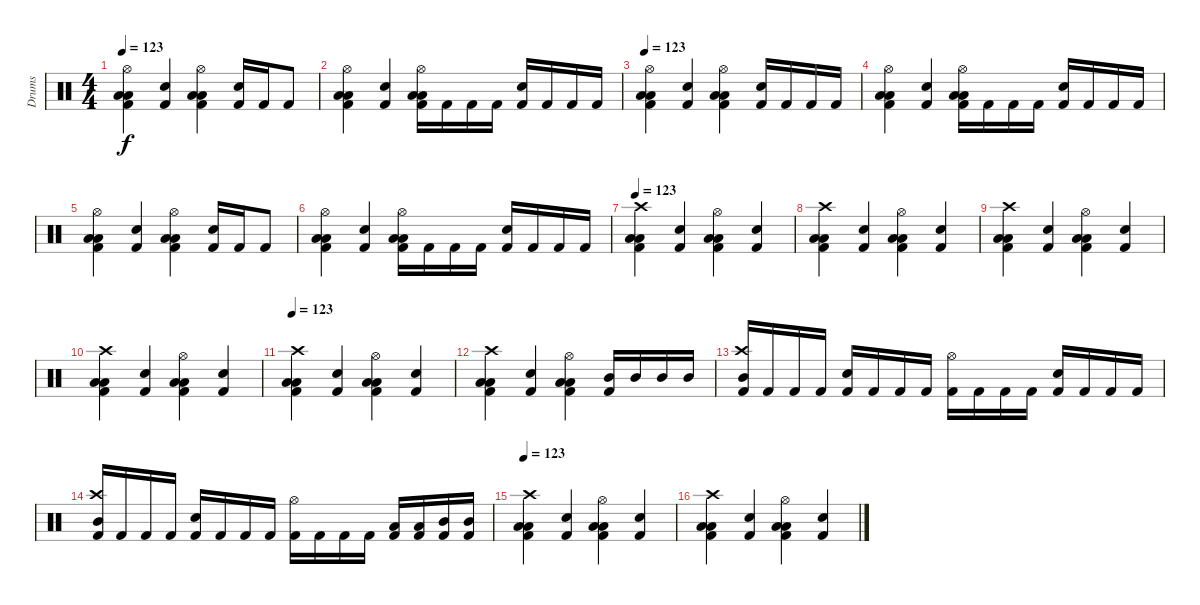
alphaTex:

\track ("Drums" "Drums") {instrument percussion}
\staff {score}
\articulation defaults
\ts (4 4)
\tempo 123
\clef neutral
\ks c
("Hi-Hat (open)" "Low Floor Tom (hit)" "Low Floor Tom (hit)" "Kick (hit) 2").4{dy f} ("Snare (hit) 2" "Kick (hit) 2").4 ("Hi-Hat (open)" "Low Floor Tom (hit)" "Low Floor Tom (hit)" "Kick (hit) 2").4 ("Snare (hit) 2" "Kick (hit) 2").16 "Kick (hit) 2".16 "Kick (hit) 2".8 |
("Hi-Hat (open)" "Low Floor Tom (hit)" "Low Floor Tom (hit)" "Kick (hit) 2").4 ("Snare (hit) 2" "Kick (hit) 2").4 ("Hi-Hat (open)" "Low Floor Tom (hit)" "Low Floor Tom (hit)" "Kick (hit) 2").16 "Kick (hit) 2".16 "Kick (hit) 2".16 "Kick (hit) 2".16 ("Snare (hit) 2" "Kick (hit) 2").16 "Kick (hit) 2".16 "Kick (hit) 2".16 "Kick (hit) 2".16 |
\tempo 123
("Hi-Hat (open)" "Low Floor Tom (hit)" "Low Floor Tom (hit)" "Kick (hit) 2").4 ("Snare (hit) 2" "Kick (hit) 2").4 ("Hi-Hat (open)" "Low Floor Tom (hit)" "Low Floor Tom (hit)" "Kick (hit) 2").4 ("Snare (hit) 2" "Kick (hit) 2").16 "Kick (hit) 2".16 "Kick (hit) 2".16 "Kick (hit) 2".16 |
("Hi-Hat (open)" "Low Floor Tom (hit)" "Low Floor Tom (hit)" "Kick (hit) 2").4 ("Snare (hit) 2" "Kick (hit) 2").4 ("Hi-Hat (open)" "Low Floor Tom (hit)" "Low Floor Tom (hit)" "Kick (hit) 2").16 "Kick (hit) 2".16 "Kick (hit) 2".16 "Kick (hit) 2".16 ("Snare (hit) 2" "Kick (hit) 2").16 "Kick (hit) 2".16 "Kick (hit) 2".16 "Kick (hit) 2".16 |
("Hi-Hat (open)" "Low Floor Tom (hit)" "Low Floor Tom (hit)" "Kick (hit) 2").4 ("Snare (hit) 2" "Kick (hit) 2").4 ("Hi-Hat (open)" "Low Floor Tom (hit)" "Low Floor Tom (hit)" "Kick (hit) 2").4 ("Snare (hit) 2" "Kick (hit) 2").16 "Kick (hit) 2".16 "Kick (hit) 2".8 |
("Hi-Hat (open)" "Low Floor Tom (hit)" "Low Floor Tom (hit)" "Kick (hit) 2").4 ("Snare (hit) 2" "Kick (hit) 2").4 ("Hi-Hat (open)" "Low Floor Tom (hit)" "Low Floor Tom (hit)" "Kick (hit) 2").16 "Kick (hit) 2".16 "Kick (hit) 2".16 "Kick (hit) 2".16 ("Snare (hit) 2" "Kick (hit) 2").16 "Kick (hit) 2".16 "Kick (hit) 2".16 "Kick (hit) 2".16 |
\tempo 123
("Crash high (hit)" "Low Floor Tom (hit)" "Low Floor Tom (hit)" "Kick (hit) 2").4 ("Snare (hit) 2" "Kick (hit) 2").4 ("Hi-Hat (open)" "Low Floor Tom (hit)" "Low Floor Tom (hit)" "Kick (hit) 2").4 ("Snare (hit) 2" "Kick (hit) 2").4 |
("Crash high (hit)" "Low Floor Tom (hit)" "Low Floor Tom (hit)" "Kick (hit) 2").4 ("Snare (hit) 2" "Kick (hit) 2").4 ("Hi-Hat (open)" "Low Floor Tom (hit)" "Low Floor Tom (hit)" "Kick (hit) 2").4 ("Snare (hit) 2" "Kick (hit) 2").4 |
("Crash high (hit)" "Low Floor Tom (hit)" "Low Floor Tom (hit)" "Kick (hit) 2").4 ("Snare (hit) 2" "Kick (hit) 2").4 ("Hi-Hat (open)" "Low Floor Tom (hit)" "Low Floor Tom (hit)" "Kick (hit) 2").4 ("Snare (hit) 2" "Kick (hit) 2").4 |
("Crash high (hit)" "Low Floor Tom (hit)" "Low Floor Tom (hit)" "Kick (hit) 2").4 ("Snare (hit) 2" "Kick (hit) 2").4 ("Hi-Hat (open)" "Low Floor Tom (hit)" "Low Floor Tom (hit)" "Kick (hit) 2").4 ("Snare (hit) 2" "Kick (hit) 2").4 |
\tempo 123
("Crash high (hit)" "Low Floor Tom (hit)" "Low Floor Tom (hit)" "Kick (hit) 2").4 ("Snare (hit) 2" "Kick (hit) 2").4 ("Hi-Hat (open)" "Low Floor Tom (hit)" "Low Floor Tom (hit)" "Kick (hit) 2").4 ("Snare (hit) 2" "Kick (hit) 2").4 |
("Crash high (hit)" "Low Floor Tom (hit)" "Low Floor Tom (hit)" "Kick (hit) 2").4 ("Snare (hit) 2" "Kick (hit) 2").4 ("Hi-Hat (open)" "Low Floor Tom (hit)" "Low Floor Tom (hit)" "Kick (hit) 2").4 ("Mid Tom (hit)" "Kick (hit) 2").16 "Mid Tom (hit)".16 "Mid Tom (hit)".16 "Mid Tom (hit)".16 |
("Crash high (hit)" "Mid Tom (hit)" "Kick (hit) 2").16 "Kick (hit) 2".16 "Kick (hit) 2".16 "Kick (hit) 2".16 ("Snare (hit) 2" "Kick (hit) 2").16 "Kick (hit) 2".16 "Kick (hit) 2".16 "Kick (hit) 2".16 ("Hi-Hat (open)" "Kick (hit) 2").16 "Kick (hit) 2".16 "Kick (hit) 2".16 "Kick (hit) 2".16 ("Snare (hit) 2" "Kick (hit) 2").16 "Kick (hit) 2".16 "Kick (hit) 2".16 "Kick (hit) 2".16 |
("Crash high (hit)" "Mid Tom (hit)" "Kick (hit) 2").16 "Kick (hit) 2".16 "Kick (hit) 2".16 "Kick (hit) 2".16 ("Snare (hit) 2" "Kick (hit) 2").16 "Kick (hit) 2".16 "Kick (hit) 2".16 "Kick (hit) 2".16 ("Hi-Hat (open)" "Kick (hit) 2").16 "Kick (hit) 2".16 "Kick (hit) 2".16 "Kick (hit) 2".16 ("Low Tom (hit)" "Kick (hit) 2").16 ("Low Tom (hit)" "Kick (hit) 2").16 ("Mid Tom (hit)" "Kick (hit) 2").16 ("Mid Tom (hit)" "Kick (hit) 2").16 |
\tempo 123
("Crash high (hit)" "Low Floor Tom (hit)" "Low Floor Tom (hit)" "Kick (hit) 2").4 ("Snare (hit) 2" "Kick (hit) 2").4 ("Hi-Hat (open)" "Low Floor Tom (hit)" "Low Floor Tom (hit)" "Kick (hit) 2").4 ("Snare (hit) 2" "Kick (hit) 2").4 |
("Crash high (hit)" "Low Floor Tom (hit)" "Low Floor Tom (hit)" "Kick (hit) 2").4 ("Snare (hit) 2" "Kick (hit) 2").4 ("Hi-Hat (open)" "Low Floor Tom (hit)" "Low Floor Tom (hit)" "Kick (hit) 2").4 ("Snare (hit) 2" "Kick (hit) 2").4
